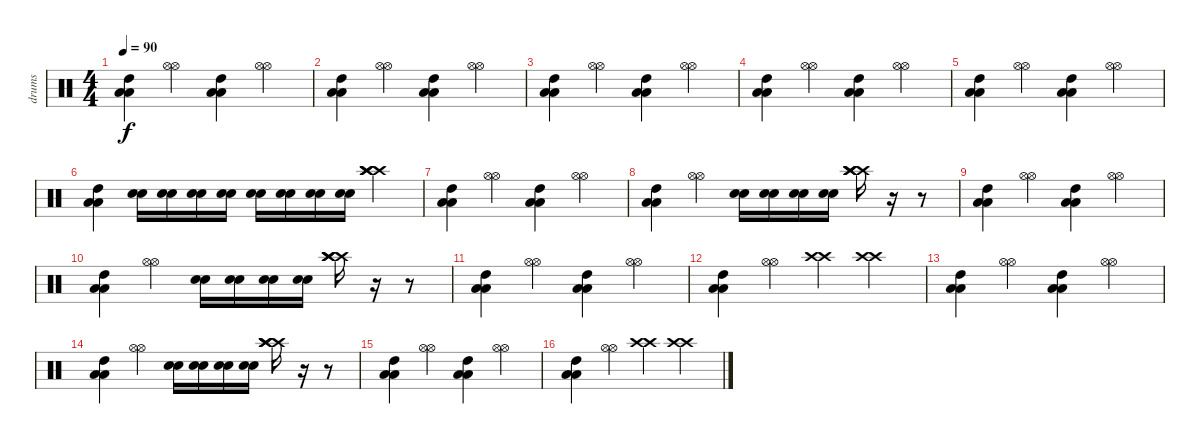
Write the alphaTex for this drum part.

\track ("drums" "drums") {instrument percussion}
\staff {score}
\articulation defaults
\ts (4 4)
\tempo 90
\clef neutral
\ks c
("High Tom (hit)" "Low Floor Tom (hit)" "Low Floor Tom (hit)").4{dy f} ("Hi-Hat (open)" "Hi-Hat (open)").4 ("High Tom (hit)" "Low Floor Tom (hit)" "Low Floor Tom (hit)").4 ("Hi-Hat (open)" "Hi-Hat (open)").4 |
("High Tom (hit)" "Low Floor Tom (hit)" "Low Floor Tom (hit)").4 ("Hi-Hat (open)" "Hi-Hat (open)").4 ("High Tom (hit)" "Low Floor Tom (hit)" "Low Floor Tom (hit)").4 ("Hi-Hat (open)" "Hi-Hat (open)").4 |
("High Tom (hit)" "Low Floor Tom (hit)" "Low Floor Tom (hit)").4 ("Hi-Hat (open)" "Hi-Hat (open)").4 ("High Tom (hit)" "Low Floor Tom (hit)" "Low Floor Tom (hit)").4 ("Hi-Hat (open)" "Hi-Hat (open)").4 |
("High Tom (hit)" "Low Floor Tom (hit)" "Low Floor Tom (hit)").4 ("Hi-Hat (open)" "Hi-Hat (open)").4 ("High Tom (hit)" "Low Floor Tom (hit)" "Low Floor Tom (hit)").4 ("Hi-Hat (open)" "Hi-Hat (open)").4 |
("High Tom (hit)" "Low Floor Tom (hit)" "Low Floor Tom (hit)").4 ("Hi-Hat (open)" "Hi-Hat (open)").4 ("High Tom (hit)" "Low Floor Tom (hit)" "Low Floor Tom (hit)").4 ("Hi-Hat (open)" "Hi-Hat (open)").4 |
("High Tom (hit)" "Low Floor Tom (hit)" "Low Floor Tom (hit)").4 ("Electric Snare (hit)" "Electric Snare (hit)").16 ("Electric Snare (hit)" "Electric Snare (hit)").16 ("Electric Snare (hit)" "Electric Snare (hit)").16 ("Electric Snare (hit)" "Electric Snare (hit)").16 ("Electric Snare (hit)" "Electric Snare (hit)").16 ("Electric Snare (hit)" "Electric Snare (hit)").16 ("Electric Snare (hit)" "Electric Snare (hit)").16 ("Electric Snare (hit)" "Electric Snare (hit)").16 ("Crash high (hit)" "Crash high (hit)" "Crash high (hit)" "Crash high (hit)").4 |
("High Tom (hit)" "Low Floor Tom (hit)" "Low Floor Tom (hit)").4 ("Hi-Hat (open)" "Hi-Hat (open)").4 ("High Tom (hit)" "Low Floor Tom (hit)" "Low Floor Tom (hit)").4 ("Hi-Hat (open)" "Hi-Hat (open)").4 |
("High Tom (hit)" "Low Floor Tom (hit)" "Low Floor Tom (hit)").4 ("Hi-Hat (open)" "Hi-Hat (open)").4 ("Electric Snare (hit)" "Electric Snare (hit)").16 ("Electric Snare (hit)" "Electric Snare (hit)").16 ("Electric Snare (hit)" "Electric Snare (hit)").16 ("Electric Snare (hit)" "Electric Snare (hit)").16 ("Crash high (hit)" "Crash high (hit)" "Crash high (hit)" "Crash high (hit)").16 r.16 r.8 |
("High Tom (hit)" "Low Floor Tom (hit)" "Low Floor Tom (hit)").4 ("Hi-Hat (open)" "Hi-Hat (open)").4 ("High Tom (hit)" "Low Floor Tom (hit)" "Low Floor Tom (hit)").4 ("Hi-Hat (open)" "Hi-Hat (open)").4 |
("High Tom (hit)" "Low Floor Tom (hit)" "Low Floor Tom (hit)").4 ("Hi-Hat (open)" "Hi-Hat (open)").4 ("Electric Snare (hit)" "Electric Snare (hit)").16 ("Electric Snare (hit)" "Electric Snare (hit)").16 ("Electric Snare (hit)" "Electric Snare (hit)").16 ("Electric Snare (hit)" "Electric Snare (hit)").16 ("Crash high (hit)" "Crash high (hit)" "Crash high (hit)" "Crash high (hit)").16 r.16 r.8 |
("High Tom (hit)" "Low Floor Tom (hit)" "Low Floor Tom (hit)").4 ("Hi-Hat (open)" "Hi-Hat (open)").4 ("High Tom (hit)" "Low Floor Tom (hit)" "Low Floor Tom (hit)").4 ("Hi-Hat (open)" "Hi-Hat (open)").4 |
("High Tom (hit)" "Low Floor Tom (hit)" "Low Floor Tom (hit)").4 ("Hi-Hat (open)" "Hi-Hat (open)").4 ("Crash high (hit)" "Crash high (hit)").4 ("Crash high (hit)" "Crash high (hit)").4 |
("High Tom (hit)" "Low Floor Tom (hit)" "Low Floor Tom (hit)").4 ("Hi-Hat (open)" "Hi-Hat (open)").4 ("High Tom (hit)" "Low Floor Tom (hit)" "Low Floor Tom (hit)").4 ("Hi-Hat (open)" "Hi-Hat (open)").4 |
("High Tom (hit)" "Low Floor Tom (hit)" "Low Floor Tom (hit)").4 ("Hi-Hat (open)" "Hi-Hat (open)").4 ("Electric Snare (hit)" "Electric Snare (hit)").16 ("Electric Snare (hit)" "Electric Snare (hit)").16 ("Electric Snare (hit)" "Electric Snare (hit)").16 ("Electric Snare (hit)" "Electric Snare (hit)").16 ("Crash high (hit)" "Crash high (hit)" "Crash high (hit)" "Crash high (hit)").16 r.16 r.8 |
("High Tom (hit)" "Low Floor Tom (hit)" "Low Floor Tom (hit)").4 ("Hi-Hat (open)" "Hi-Hat (open)").4 ("High Tom (hit)" "Low Floor Tom (hit)" "Low Floor Tom (hit)").4 ("Hi-Hat (open)" "Hi-Hat (open)").4 |
("High Tom (hit)" "Low Floor Tom (hit)" "Low Floor Tom (hit)").4 ("Hi-Hat (open)" "Hi-Hat (open)").4 ("Crash high (hit)" "Crash high (hit)").4 ("Crash high (hit)" "Crash high (hit)").4
